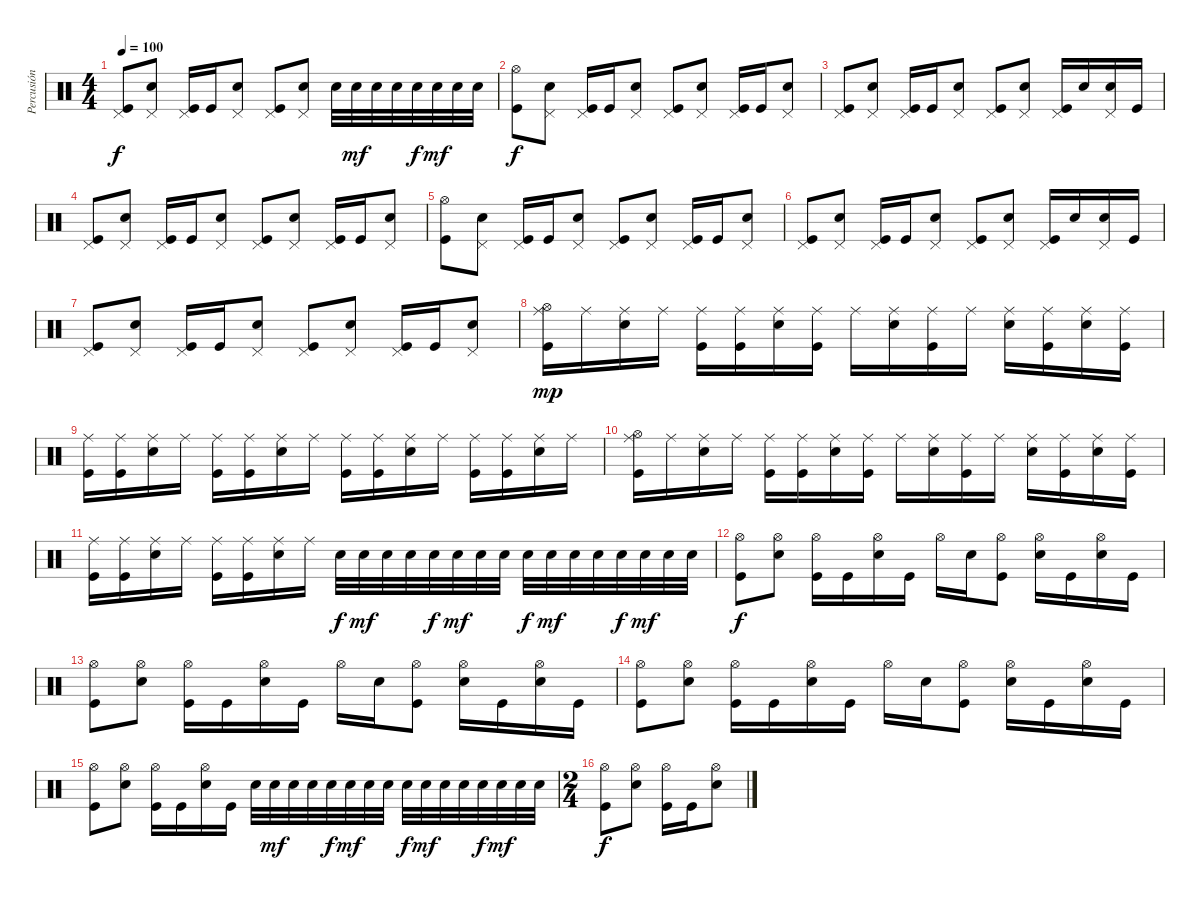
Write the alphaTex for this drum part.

\track ("Percusión" "Percusión") {instrument percussion}
\staff {score}
\articulation defaults
\ts (4 4)
\tempo 100
\clef neutral
\ks c
("Pedal Hi-Hat (hit)" "Kick (hit)").8{dy f} ("Pedal Hi-Hat (hit)" "Snare (hit) 2").8 ("Pedal Hi-Hat (hit)" "Kick (hit)").16 "Kick (hit)".16 ("Pedal Hi-Hat (hit)" "Snare (hit) 2").8 ("Pedal Hi-Hat (hit)" "Kick (hit)").8 ("Pedal Hi-Hat (hit)" "Snare (hit) 2").8 "Snare (hit) 2".32 "Snare (hit) 2".32{dy mf} "Snare (hit) 2".32 "Snare (hit) 2".32 "Snare (hit) 2".32{dy f} "Snare (hit) 2".32{dy mf} "Snare (hit) 2".32 "Snare (hit) 2".32 |
("Kick (hit)" "Hi-Hat (open)").8{dy f} ("Pedal Hi-Hat (hit)" "Snare (hit) 2").8 ("Pedal Hi-Hat (hit)" "Kick (hit)").16 "Kick (hit)".16 ("Pedal Hi-Hat (hit)" "Snare (hit) 2").8 ("Pedal Hi-Hat (hit)" "Kick (hit)").8 ("Pedal Hi-Hat (hit)" "Snare (hit) 2").8 ("Pedal Hi-Hat (hit)" "Kick (hit)").16 "Kick (hit)".16 ("Pedal Hi-Hat (hit)" "Snare (hit) 2").8 |
("Pedal Hi-Hat (hit)" "Kick (hit)").8 ("Pedal Hi-Hat (hit)" "Snare (hit) 2").8 ("Pedal Hi-Hat (hit)" "Kick (hit)").16 "Kick (hit)".16 ("Pedal Hi-Hat (hit)" "Snare (hit) 2").8 ("Pedal Hi-Hat (hit)" "Kick (hit)").8 ("Pedal Hi-Hat (hit)" "Snare (hit) 2").8 ("Pedal Hi-Hat (hit)" "Kick (hit)").16 "Snare (hit) 2".16 ("Pedal Hi-Hat (hit)" "Snare (hit) 2").16 "Kick (hit)".16 |
("Pedal Hi-Hat (hit)" "Kick (hit)").8 ("Pedal Hi-Hat (hit)" "Snare (hit) 2").8 ("Pedal Hi-Hat (hit)" "Kick (hit)").16 "Kick (hit)".16 ("Pedal Hi-Hat (hit)" "Snare (hit) 2").8 ("Pedal Hi-Hat (hit)" "Kick (hit)").8 ("Pedal Hi-Hat (hit)" "Snare (hit) 2").8 ("Pedal Hi-Hat (hit)" "Kick (hit)").16 "Kick (hit)".16 ("Pedal Hi-Hat (hit)" "Snare (hit) 2").8 |
("Kick (hit)" "Hi-Hat (open)").8 ("Pedal Hi-Hat (hit)" "Snare (hit) 2").8 ("Pedal Hi-Hat (hit)" "Kick (hit)").16 "Kick (hit)".16 ("Pedal Hi-Hat (hit)" "Snare (hit) 2").8 ("Pedal Hi-Hat (hit)" "Kick (hit)").8 ("Pedal Hi-Hat (hit)" "Snare (hit) 2").8 ("Pedal Hi-Hat (hit)" "Kick (hit)").16 "Kick (hit)".16 ("Pedal Hi-Hat (hit)" "Snare (hit) 2").8 |
("Pedal Hi-Hat (hit)" "Kick (hit)").8 ("Pedal Hi-Hat (hit)" "Snare (hit) 2").8 ("Pedal Hi-Hat (hit)" "Kick (hit)").16 "Kick (hit)".16 ("Pedal Hi-Hat (hit)" "Snare (hit) 2").8 ("Pedal Hi-Hat (hit)" "Kick (hit)").8 ("Pedal Hi-Hat (hit)" "Snare (hit) 2").8 ("Pedal Hi-Hat (hit)" "Kick (hit)").16 "Snare (hit) 2".16 ("Pedal Hi-Hat (hit)" "Snare (hit) 2").16 "Kick (hit)".16 |
("Pedal Hi-Hat (hit)" "Kick (hit)").8 ("Pedal Hi-Hat (hit)" "Snare (hit) 2").8 ("Pedal Hi-Hat (hit)" "Kick (hit)").16 "Kick (hit)".16 ("Pedal Hi-Hat (hit)" "Snare (hit) 2").8 ("Pedal Hi-Hat (hit)" "Kick (hit)").8 ("Pedal Hi-Hat (hit)" "Snare (hit) 2").8 ("Pedal Hi-Hat (hit)" "Kick (hit)").16 "Kick (hit)".16 ("Pedal Hi-Hat (hit)" "Snare (hit) 2").8 |
("Kick (hit)" "Hi-Hat (open)" "Ride (middle)").16{dy mp} "Ride (middle)".16 ("Snare (hit) 2" "Ride (middle)").16 "Ride (middle)".16 ("Kick (hit)" "Ride (middle)").16 ("Kick (hit)" "Ride (middle)").16 ("Snare (hit) 2" "Ride (middle)").16 ("Kick (hit)" "Ride (middle)").16 "Ride (middle)".16 ("Snare (hit) 2" "Ride (middle)").16 ("Kick (hit)" "Ride (middle)").16 "Ride (middle)".16 ("Snare (hit) 2" "Ride (middle)").16 ("Kick (hit)" "Ride (middle)").16 ("Snare (hit) 2" "Ride (middle)").16 ("Kick (hit)" "Ride (middle)").16 |
("Kick (hit)" "Ride (middle)").16 ("Kick (hit)" "Ride (middle)").16 ("Snare (hit) 2" "Ride (middle)").16 "Ride (middle)".16 ("Kick (hit)" "Ride (middle)").16 ("Kick (hit)" "Ride (middle)").16 ("Snare (hit) 2" "Ride (middle)").16 "Ride (middle)".16 ("Kick (hit)" "Ride (middle)").16 ("Kick (hit)" "Ride (middle)").16 ("Snare (hit) 2" "Ride (middle)").16 "Ride (middle)".16 ("Kick (hit)" "Ride (middle)").16 ("Kick (hit)" "Ride (middle)").16 ("Snare (hit) 2" "Ride (middle)").16 "Ride (middle)".16 |
("Kick (hit)" "Hi-Hat (open)" "Ride (middle)").16 "Ride (middle)".16 ("Snare (hit) 2" "Ride (middle)").16 "Ride (middle)".16 ("Kick (hit)" "Ride (middle)").16 ("Kick (hit)" "Ride (middle)").16 ("Snare (hit) 2" "Ride (middle)").16 ("Kick (hit)" "Ride (middle)").16 "Ride (middle)".16 ("Snare (hit) 2" "Ride (middle)").16 ("Kick (hit)" "Ride (middle)").16 "Ride (middle)".16 ("Snare (hit) 2" "Ride (middle)").16 ("Kick (hit)" "Ride (middle)").16 ("Snare (hit) 2" "Ride (middle)").16 ("Kick (hit)" "Ride (middle)").16 |
("Kick (hit)" "Ride (middle)").16 ("Kick (hit)" "Ride (middle)").16 ("Snare (hit) 2" "Ride (middle)").16 "Ride (middle)".16 ("Kick (hit)" "Ride (middle)").16 ("Kick (hit)" "Ride (middle)").16 ("Snare (hit) 2" "Ride (middle)").16 "Ride (middle)".16 "Snare (hit) 2".32{dy f} "Snare (hit) 2".32{dy mf} "Snare (hit) 2".32 "Snare (hit) 2".32 "Snare (hit) 2".32{dy f} "Snare (hit) 2".32{dy mf} "Snare (hit) 2".32 "Snare (hit) 2".32 "Snare (hit) 2".32{dy f} "Snare (hit) 2".32{dy mf} "Snare (hit) 2".32 "Snare (hit) 2".32 "Snare (hit) 2".32{dy f} "Snare (hit) 2".32{dy mf} "Snare (hit) 2".32 "Snare (hit) 2".32 |
("Kick (hit)" "Hi-Hat (open)").8{dy f} ("Snare (hit) 2" "Hi-Hat (open)").8 ("Kick (hit)" "Hi-Hat (open)").16 "Kick (hit)".16 ("Snare (hit) 2" "Hi-Hat (open)").16 "Kick (hit)".16 "Hi-Hat (open)".16 "Snare (hit) 2".16 ("Kick (hit)" "Hi-Hat (open)").8 ("Snare (hit) 2" "Hi-Hat (open)").16 "Kick (hit)".16 ("Snare (hit) 2" "Hi-Hat (open)").16 "Kick (hit)".16 |
("Kick (hit)" "Hi-Hat (open)").8 ("Snare (hit) 2" "Hi-Hat (open)").8 ("Kick (hit)" "Hi-Hat (open)").16 "Kick (hit)".16 ("Snare (hit) 2" "Hi-Hat (open)").16 "Kick (hit)".16 "Hi-Hat (open)".16 "Snare (hit) 2".16 ("Kick (hit)" "Hi-Hat (open)").8 ("Snare (hit) 2" "Hi-Hat (open)").16 "Kick (hit)".16 ("Snare (hit) 2" "Hi-Hat (open)").16 "Kick (hit)".16 |
("Kick (hit)" "Hi-Hat (open)").8 ("Snare (hit) 2" "Hi-Hat (open)").8 ("Kick (hit)" "Hi-Hat (open)").16 "Kick (hit)".16 ("Snare (hit) 2" "Hi-Hat (open)").16 "Kick (hit)".16 "Hi-Hat (open)".16 "Snare (hit) 2".16 ("Kick (hit)" "Hi-Hat (open)").8 ("Snare (hit) 2" "Hi-Hat (open)").16 "Kick (hit)".16 ("Snare (hit) 2" "Hi-Hat (open)").16 "Kick (hit)".16 |
("Kick (hit)" "Hi-Hat (open)").8 ("Snare (hit) 2" "Hi-Hat (open)").8 ("Kick (hit)" "Hi-Hat (open)").16 "Kick (hit)".16 ("Snare (hit) 2" "Hi-Hat (open)").16 "Kick (hit)".16 "Snare (hit) 2".32 "Snare (hit) 2".32{dy mf} "Snare (hit) 2".32 "Snare (hit) 2".32 "Snare (hit) 2".32{dy f} "Snare (hit) 2".32{dy mf} "Snare (hit) 2".32 "Snare (hit) 2".32 "Snare (hit) 2".32{dy f} "Snare (hit) 2".32{dy mf} "Snare (hit) 2".32 "Snare (hit) 2".32 "Snare (hit) 2".32{dy f} "Snare (hit) 2".32{dy mf} "Snare (hit) 2".32 "Snare (hit) 2".32 |
\ts (2 4)
("Kick (hit)" "Hi-Hat (open)").8{dy f} ("Snare (hit) 2" "Hi-Hat (open)").8 ("Kick (hit)" "Hi-Hat (open)").16 "Kick (hit)".16 ("Snare (hit) 2" "Hi-Hat (open)").8
